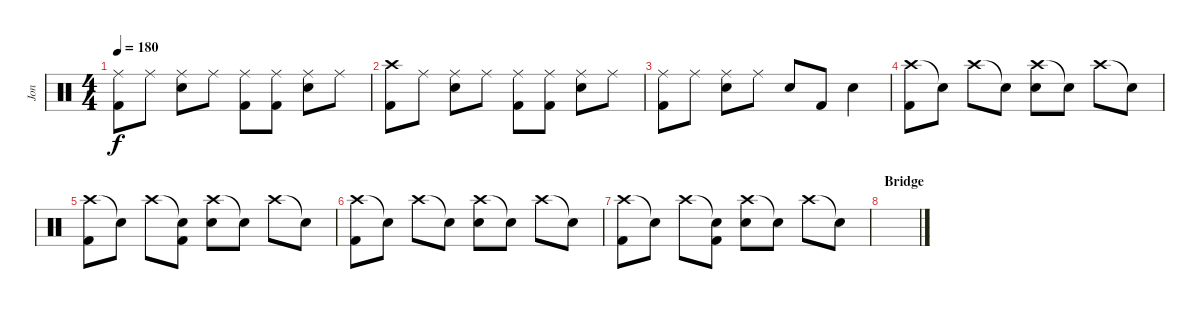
\track ("Jon" "Jon") {instrument percussion}
\staff {score}
\articulation defaults
\ts (4 4)
\tempo 180
\clef neutral
\ks c
("Ride (middle)" "Kick (hit) 2").8{dy f} "Ride (middle)".8 ("Ride (middle)" "Snare (hit) 2").8 "Ride (middle)".8 ("Ride (middle)" "Kick (hit) 2").8 ("Ride (middle)" "Kick (hit) 2").8 ("Ride (middle)" "Snare (hit) 2").8 "Ride (middle)".8 |
("Crash high (hit)" "Kick (hit) 2").8 "Ride (middle)".8 ("Ride (middle)" "Snare (hit) 2").8 "Ride (middle)".8 ("Ride (middle)" "Kick (hit) 2").8 ("Ride (middle)" "Kick (hit) 2").8 ("Ride (middle)" "Snare (hit) 2").8 "Ride (middle)".8 |
("Ride (middle)" "Kick (hit) 2").8 "Ride (middle)".8 ("Ride (middle)" "Snare (hit) 2").8 "Ride (middle)".8 "Snare (hit) 2".8 "Kick (hit) 2".8 "Snare (hit) 2".4 |
("Crash high (hit)" "Kick (hit) 2").8 "Snare (hit)"{t}.8 "Crash high (hit)".8 "Snare (hit)"{t}.8 ("Crash high (hit)" "Snare (hit) 2").8 "Snare (hit)"{t}.8 "Crash high (hit)".8 "Snare (hit)"{t}.8 |
("Crash high (hit)" "Kick (hit) 2").8 "Snare (hit)"{t}.8 "Crash high (hit)".8 ("Snare (hit)"{t} "Kick (hit) 2").8 ("Crash high (hit)" "Snare (hit) 2").8 "Snare (hit)"{t}.8 "Crash high (hit)".8 "Snare (hit)"{t}.8 |
("Crash high (hit)" "Kick (hit) 2").8 "Snare (hit)"{t}.8 "Crash high (hit)".8 "Snare (hit)"{t}.8 ("Crash high (hit)" "Snare (hit) 2").8 "Snare (hit)"{t}.8 "Crash high (hit)".8 "Snare (hit)"{t}.8 |
("Crash high (hit)" "Kick (hit) 2").8 "Snare (hit)"{t}.8 "Crash high (hit)".8 ("Snare (hit)"{t} "Kick (hit) 2").8 ("Crash high (hit)" "Snare (hit) 2").8 "Snare (hit)"{t}.8 "Crash high (hit)".8 "Snare (hit)"{t}.8 |
\section ("" "Bridge")
